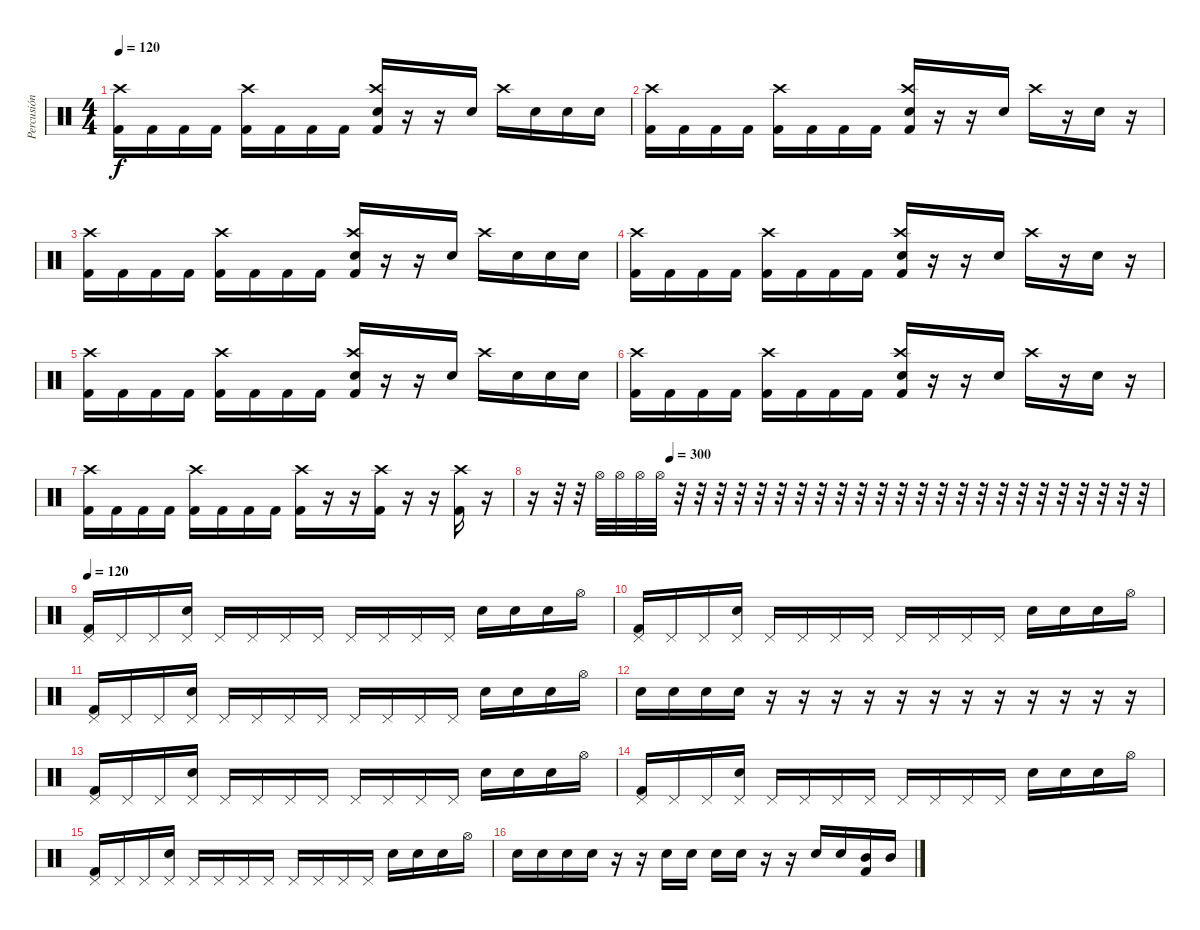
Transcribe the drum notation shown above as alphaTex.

\track ("Percusión" "Percusión") {instrument percussion}
\staff {score}
\articulation defaults
\ts (4 4)
\tempo 120
\clef neutral
\ks c
("Kick (hit) 2" "Crash high (hit)").16{dy f} "Kick (hit) 2".16 "Kick (hit) 2".16 "Kick (hit) 2".16 ("Kick (hit) 2" "Crash high (hit)").16 "Kick (hit) 2".16 "Kick (hit) 2".16 "Kick (hit) 2".16 ("Kick (hit) 2" "Crash high (hit)" "Electric Snare (hit)").16 r.16 r.16 "Electric Snare (hit)".16 "Crash high (hit)".16 "Electric Snare (hit)".16 "Electric Snare (hit)".16 "Electric Snare (hit)".16 |
("Kick (hit) 2" "Crash high (hit)").16 "Kick (hit) 2".16 "Kick (hit) 2".16 "Kick (hit) 2".16 ("Kick (hit) 2" "Crash high (hit)").16 "Kick (hit) 2".16 "Kick (hit) 2".16 "Kick (hit) 2".16 ("Kick (hit) 2" "Crash high (hit)" "Electric Snare (hit)").16 r.16 r.16 "Electric Snare (hit)".16 "Crash high (hit)".16 r.16 "Electric Snare (hit)".16 r.16 |
("Kick (hit) 2" "Crash high (hit)").16 "Kick (hit) 2".16 "Kick (hit) 2".16 "Kick (hit) 2".16 ("Kick (hit) 2" "Crash high (hit)").16 "Kick (hit) 2".16 "Kick (hit) 2".16 "Kick (hit) 2".16 ("Kick (hit) 2" "Crash high (hit)" "Electric Snare (hit)").16 r.16 r.16 "Electric Snare (hit)".16 "Crash high (hit)".16 "Electric Snare (hit)".16 "Electric Snare (hit)".16 "Electric Snare (hit)".16 |
("Kick (hit) 2" "Crash high (hit)").16 "Kick (hit) 2".16 "Kick (hit) 2".16 "Kick (hit) 2".16 ("Kick (hit) 2" "Crash high (hit)").16 "Kick (hit) 2".16 "Kick (hit) 2".16 "Kick (hit) 2".16 ("Kick (hit) 2" "Crash high (hit)" "Electric Snare (hit)").16 r.16 r.16 "Electric Snare (hit)".16 "Crash high (hit)".16 r.16 "Electric Snare (hit)".16 r.16 |
("Kick (hit) 2" "Crash high (hit)").16 "Kick (hit) 2".16 "Kick (hit) 2".16 "Kick (hit) 2".16 ("Kick (hit) 2" "Crash high (hit)").16 "Kick (hit) 2".16 "Kick (hit) 2".16 "Kick (hit) 2".16 ("Kick (hit) 2" "Crash high (hit)" "Electric Snare (hit)").16 r.16 r.16 "Electric Snare (hit)".16 "Crash high (hit)".16 "Electric Snare (hit)".16 "Electric Snare (hit)".16 "Electric Snare (hit)".16 |
("Kick (hit) 2" "Crash high (hit)").16 "Kick (hit) 2".16 "Kick (hit) 2".16 "Kick (hit) 2".16 ("Kick (hit) 2" "Crash high (hit)").16 "Kick (hit) 2".16 "Kick (hit) 2".16 "Kick (hit) 2".16 ("Kick (hit) 2" "Crash high (hit)" "Electric Snare (hit)").16 r.16 r.16 "Electric Snare (hit)".16 "Crash high (hit)".16 r.16 "Electric Snare (hit)".16 r.16 |
("Kick (hit) 2" "Crash high (hit)").16 "Kick (hit) 2".16 "Kick (hit) 2".16 "Kick (hit) 2".16 ("Kick (hit) 2" "Crash high (hit)").16 "Kick (hit) 2".16 "Kick (hit) 2".16 "Kick (hit) 2".16 ("Kick (hit) 2" "Crash high (hit)").16 r.16 r.16 ("Kick (hit) 2" "Crash high (hit)").16 r.16 r.16 ("Kick (hit) 2" "Crash high (hit)").16 r.16 |
\tempo (300 0.21875)
r.16 r.32 r.32 "Hi-Hat (open)".32 "Hi-Hat (open)".32 "Hi-Hat (open)".32 "Hi-Hat (open)".32 r.32 r.32 r.32 r.32 r.32 r.32 r.32 r.32 r.32 r.32 r.32 r.32 r.32 r.32 r.32 r.32 r.32 r.32 r.32 r.32 r.32 r.32 r.32 r.32 |
\tempo 120
("Pedal Hi-Hat (hit)" "Kick (hit) 2").16 "Pedal Hi-Hat (hit)".16 "Pedal Hi-Hat (hit)".16 ("Pedal Hi-Hat (hit)" "Electric Snare (hit)").16 "Pedal Hi-Hat (hit)".16 "Pedal Hi-Hat (hit)".16 "Pedal Hi-Hat (hit)".16 "Pedal Hi-Hat (hit)".16 "Pedal Hi-Hat (hit)".16 "Pedal Hi-Hat (hit)".16 "Pedal Hi-Hat (hit)".16 "Pedal Hi-Hat (hit)".16 "Electric Snare (hit)".16 "Electric Snare (hit)".16 "Electric Snare (hit)".16 "Hi-Hat (open)".16 |
("Pedal Hi-Hat (hit)" "Kick (hit) 2").16 "Pedal Hi-Hat (hit)".16 "Pedal Hi-Hat (hit)".16 ("Pedal Hi-Hat (hit)" "Electric Snare (hit)").16 "Pedal Hi-Hat (hit)".16 "Pedal Hi-Hat (hit)".16 "Pedal Hi-Hat (hit)".16 "Pedal Hi-Hat (hit)".16 "Pedal Hi-Hat (hit)".16 "Pedal Hi-Hat (hit)".16 "Pedal Hi-Hat (hit)".16 "Pedal Hi-Hat (hit)".16 "Electric Snare (hit)".16 "Electric Snare (hit)".16 "Electric Snare (hit)".16 "Hi-Hat (open)".16 |
("Pedal Hi-Hat (hit)" "Kick (hit) 2").16 "Pedal Hi-Hat (hit)".16 "Pedal Hi-Hat (hit)".16 ("Pedal Hi-Hat (hit)" "Electric Snare (hit)").16 "Pedal Hi-Hat (hit)".16 "Pedal Hi-Hat (hit)".16 "Pedal Hi-Hat (hit)".16 "Pedal Hi-Hat (hit)".16 "Pedal Hi-Hat (hit)".16 "Pedal Hi-Hat (hit)".16 "Pedal Hi-Hat (hit)".16 "Pedal Hi-Hat (hit)".16 "Electric Snare (hit)".16 "Electric Snare (hit)".16 "Electric Snare (hit)".16 "Hi-Hat (open)".16 |
"Electric Snare (hit)".16 "Electric Snare (hit)".16 "Electric Snare (hit)".16 "Electric Snare (hit)".16 r.16 r.16 r.16 r.16 r.16 r.16 r.16 r.16 r.16 r.16 r.16 r.16 |
("Pedal Hi-Hat (hit)" "Kick (hit) 2").16 "Pedal Hi-Hat (hit)".16 "Pedal Hi-Hat (hit)".16 ("Pedal Hi-Hat (hit)" "Electric Snare (hit)").16 "Pedal Hi-Hat (hit)".16 "Pedal Hi-Hat (hit)".16 "Pedal Hi-Hat (hit)".16 "Pedal Hi-Hat (hit)".16 "Pedal Hi-Hat (hit)".16 "Pedal Hi-Hat (hit)".16 "Pedal Hi-Hat (hit)".16 "Pedal Hi-Hat (hit)".16 "Electric Snare (hit)".16 "Electric Snare (hit)".16 "Electric Snare (hit)".16 "Hi-Hat (open)".16 |
("Pedal Hi-Hat (hit)" "Kick (hit) 2").16 "Pedal Hi-Hat (hit)".16 "Pedal Hi-Hat (hit)".16 ("Pedal Hi-Hat (hit)" "Electric Snare (hit)").16 "Pedal Hi-Hat (hit)".16 "Pedal Hi-Hat (hit)".16 "Pedal Hi-Hat (hit)".16 "Pedal Hi-Hat (hit)".16 "Pedal Hi-Hat (hit)".16 "Pedal Hi-Hat (hit)".16 "Pedal Hi-Hat (hit)".16 "Pedal Hi-Hat (hit)".16 "Electric Snare (hit)".16 "Electric Snare (hit)".16 "Electric Snare (hit)".16 "Hi-Hat (open)".16 |
("Pedal Hi-Hat (hit)" "Kick (hit) 2").16 "Pedal Hi-Hat (hit)".16 "Pedal Hi-Hat (hit)".16 ("Pedal Hi-Hat (hit)" "Electric Snare (hit)").16 "Pedal Hi-Hat (hit)".16 "Pedal Hi-Hat (hit)".16 "Pedal Hi-Hat (hit)".16 "Pedal Hi-Hat (hit)".16 "Pedal Hi-Hat (hit)".16 "Pedal Hi-Hat (hit)".16 "Pedal Hi-Hat (hit)".16 "Pedal Hi-Hat (hit)".16 "Electric Snare (hit)".16 "Electric Snare (hit)".16 "Electric Snare (hit)".16 "Hi-Hat (open)".16 |
"Electric Snare (hit)".16 "Electric Snare (hit)".16 "Electric Snare (hit)".16 "Electric Snare (hit)".16 r.16 r.16 "Electric Snare (hit)".16 "Electric Snare (hit)".16 "Electric Snare (hit)".16 "Electric Snare (hit)".16 r.16 r.16 "Electric Snare (hit)".16 "Electric Snare (hit)".16 ("Mid Tom (hit)" "Kick (hit) 2").16 "Mid Tom (hit)".16
